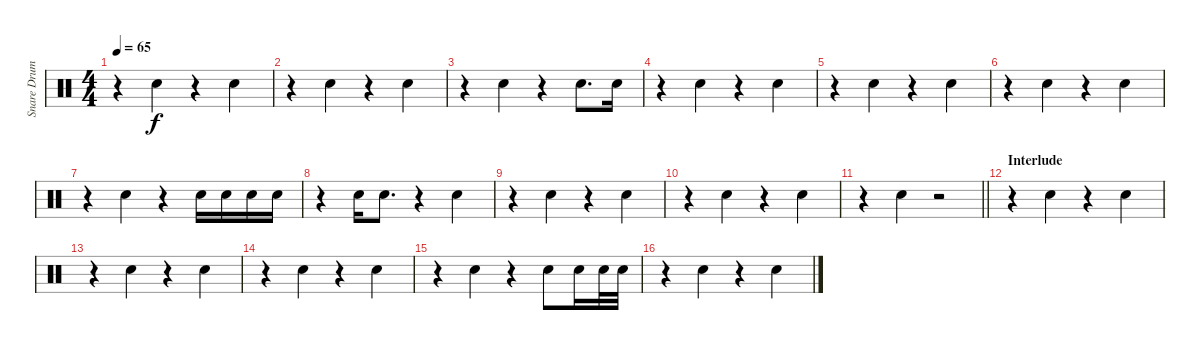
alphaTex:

\track ("Snare Drum - reverb" "Snare Drum") {instrument percussion}
\staff {score}
\articulation defaults
\ts (4 4)
\tempo 65
\clef neutral
\ks c
r.4{dy f} "Snare (hit) 2".4 r.4 "Snare (hit) 2".4 |
r.4 "Snare (hit) 2".4 r.4 "Snare (hit) 2".4 |
r.4 "Snare (hit) 2".4 r.4 "Snare (hit) 2".8{d} "Snare (hit) 2".16 |
r.4 "Snare (hit) 2".4 r.4 "Snare (hit) 2".4 |
r.4 "Snare (hit) 2".4 r.4 "Snare (hit) 2".4 |
r.4 "Snare (hit) 2".4 r.4 "Snare (hit) 2".4 |
r.4{beam merge} "Snare (hit) 2".4 r.4 "Snare (hit) 2".16 "Snare (hit) 2".16 "Snare (hit) 2".16 "Snare (hit) 2".16 |
r.4 "Snare (hit) 2".16 "Snare (hit) 2".8{d} r.4{beam merge} "Snare (hit) 2".4 |
r.4 "Snare (hit) 2".4 r.4 "Snare (hit) 2".4 |
r.4 "Snare (hit) 2".4 r.4 "Snare (hit) 2".4 |
\barLineRight lightlight
r.4{beam merge} "Snare (hit) 2".4 r.2 |
\section ("" "Interlude")
r.4 "Snare (hit) 2".4 r.4 "Snare (hit) 2".4 |
r.4 "Snare (hit) 2".4 r.4 "Snare (hit) 2".4 |
r.4{beam merge} "Snare (hit) 2".4 r.4 "Snare (hit) 2".4 |
r.4{beam merge} "Snare (hit) 2".4 r.4 "Snare (hit) 2".8 "Snare (hit) 2".16 "Snare (hit) 2".32 "Snare (hit) 2".32 |
r.4 "Snare (hit) 2".4 r.4 "Snare (hit) 2".4
